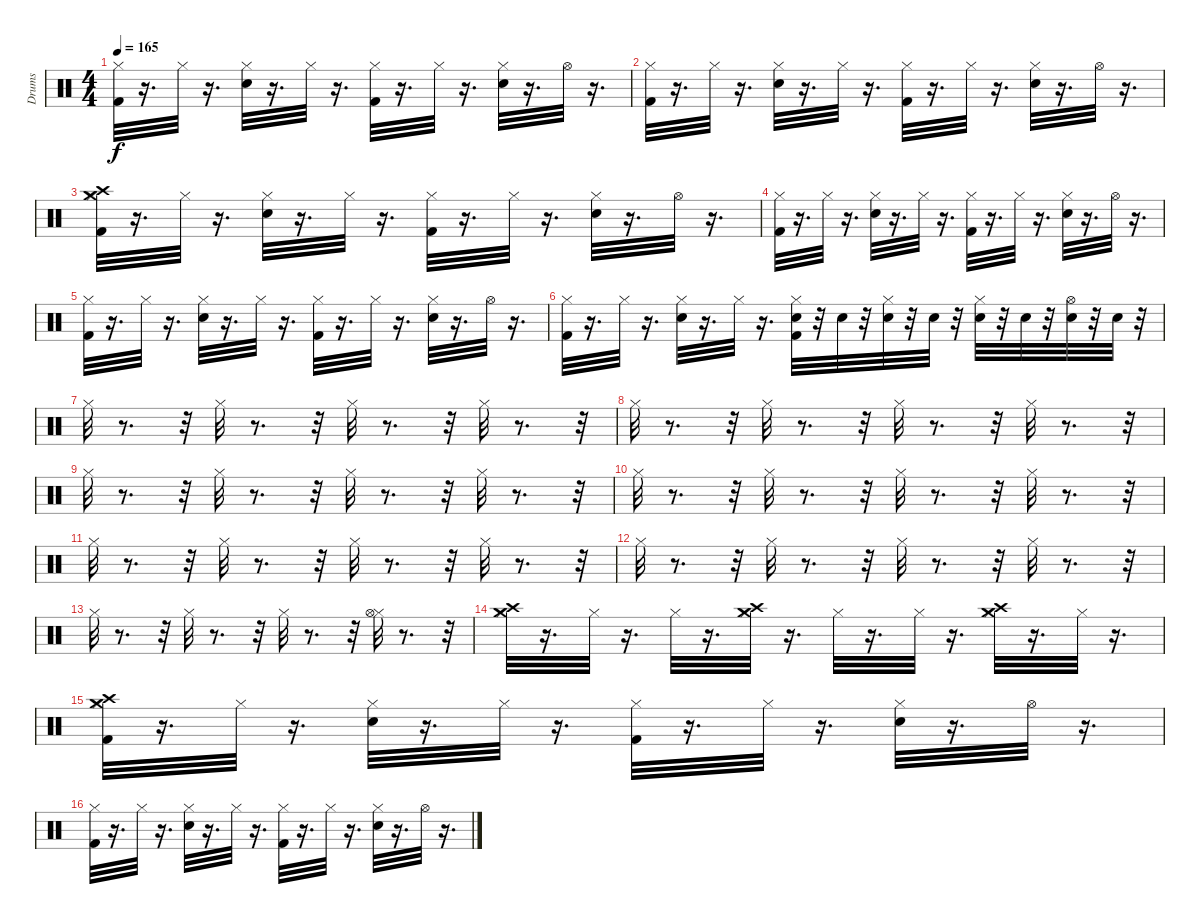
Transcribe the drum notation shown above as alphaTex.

\track ("Drums" "Drums") {instrument percussion}
\staff {score}
\articulation defaults
\ts (4 4)
\tempo 165
\clef neutral
\ks c
("Kick (hit) 2" "Hi-Hat (closed)").32{dy f} r.16{d} "Hi-Hat (closed)".32 r.16{d} ("Hi-Hat (closed)" "Electric Snare (hit)").32 r.16{d} "Hi-Hat (closed)".32 r.16{d} ("Kick (hit) 2" "Hi-Hat (closed)").32 r.16{d} "Hi-Hat (closed)".32 r.16{d} ("Electric Snare (hit)" "Hi-Hat (closed)").32 r.16{d} "Hi-Hat (open)".32 r.16{d} |
("Kick (hit) 2" "Hi-Hat (closed)").32 r.16{d} "Hi-Hat (closed)".32 r.16{d} ("Hi-Hat (closed)" "Electric Snare (hit)").32 r.16{d} "Hi-Hat (closed)".32 r.16{d} ("Kick (hit) 2" "Hi-Hat (closed)").32 r.16{d} "Hi-Hat (closed)".32 r.16{d} ("Electric Snare (hit)" "Hi-Hat (closed)").32 r.16{d} "Hi-Hat (open)".32 r.16{d} |
("Kick (hit) 2" "Hi-Hat (closed)" "Crash high (hit)" "Crash medium (hit)").32 r.16{d} "Hi-Hat (closed)".32 r.16{d} ("Hi-Hat (closed)" "Electric Snare (hit)").32 r.16{d} "Hi-Hat (closed)".32 r.16{d} ("Kick (hit) 2" "Hi-Hat (closed)").32 r.16{d} "Hi-Hat (closed)".32 r.16{d} ("Electric Snare (hit)" "Hi-Hat (closed)").32 r.16{d} "Hi-Hat (open)".32 r.16{d} |
("Kick (hit) 2" "Hi-Hat (closed)").32 r.16{d} "Hi-Hat (closed)".32 r.16{d} ("Hi-Hat (closed)" "Electric Snare (hit)").32 r.16{d} "Hi-Hat (closed)".32 r.16{d} ("Kick (hit) 2" "Hi-Hat (closed)").32 r.16{d} "Hi-Hat (closed)".32 r.16{d} ("Electric Snare (hit)" "Hi-Hat (closed)").32 r.16{d} "Hi-Hat (open)".32 r.16{d} |
("Kick (hit) 2" "Hi-Hat (closed)").32 r.16{d} "Hi-Hat (closed)".32 r.16{d} ("Hi-Hat (closed)" "Electric Snare (hit)").32 r.16{d} "Hi-Hat (closed)".32 r.16{d} ("Kick (hit) 2" "Hi-Hat (closed)").32 r.16{d} "Hi-Hat (closed)".32 r.16{d} ("Electric Snare (hit)" "Hi-Hat (closed)").32 r.16{d} "Hi-Hat (open)".32 r.16{d} |
("Kick (hit) 2" "Hi-Hat (closed)").32 r.16{d} "Hi-Hat (closed)".32 r.16{d} ("Hi-Hat (closed)" "Electric Snare (hit)").32 r.16{d} "Hi-Hat (closed)".32 r.16{d} ("Kick (hit) 2" "Hi-Hat (closed)" "Electric Snare (hit)").32 r.32 "Electric Snare (hit)".32 r.32 ("Electric Snare (hit)" "Hi-Hat (closed)").32 r.32 "Electric Snare (hit)".32 r.32 ("Electric Snare (hit)" "Hi-Hat (closed)").32 r.32 "Electric Snare (hit)".32 r.32 ("Electric Snare (hit)" "Hi-Hat (open)").32 r.32 "Electric Snare (hit)".32 r.32 |
"Hi-Hat (closed)".32 r.8{d} r.32 "Hi-Hat (closed)".32 r.8{d} r.32 "Hi-Hat (closed)".32 r.8{d} r.32 "Hi-Hat (closed)".32 r.8{d} r.32 |
"Hi-Hat (closed)".32 r.8{d} r.32 "Hi-Hat (closed)".32 r.8{d} r.32 "Hi-Hat (closed)".32 r.8{d} r.32 "Hi-Hat (closed)".32 r.8{d} r.32 |
"Hi-Hat (closed)".32 r.8{d} r.32 "Hi-Hat (closed)".32 r.8{d} r.32 "Hi-Hat (closed)".32 r.8{d} r.32 "Hi-Hat (closed)".32 r.8{d} r.32 |
"Hi-Hat (closed)".32 r.8{d} r.32 "Hi-Hat (closed)".32 r.8{d} r.32 "Hi-Hat (closed)".32 r.8{d} r.32 "Hi-Hat (closed)".32 r.8{d} r.32 |
"Hi-Hat (closed)".32 r.8{d} r.32 "Hi-Hat (closed)".32 r.8{d} r.32 "Hi-Hat (closed)".32 r.8{d} r.32 "Hi-Hat (closed)".32 r.8{d} r.32 |
"Hi-Hat (closed)".32 r.8{d} r.32 "Hi-Hat (closed)".32 r.8{d} r.32 "Hi-Hat (closed)".32 r.8{d} r.32 "Hi-Hat (closed)".32 r.8{d} r.32 |
"Hi-Hat (closed)".32 r.8{d} r.32 "Hi-Hat (closed)".32 r.8{d} r.32 "Hi-Hat (closed)".32 r.8{d} r.32 ("Hi-Hat (closed)" "Hi-Hat (open)").32 r.8{d} r.32 |
("Hi-Hat (closed)" "Crash medium (hit)" "Crash high (hit)").32 r.16{d} "Hi-Hat (closed)".32 r.16{d} "Hi-Hat (closed)".32 r.16{d} ("Hi-Hat (closed)" "Crash medium (hit)" "Crash high (hit)").32 r.16{d} "Hi-Hat (closed)".32 r.16{d} "Hi-Hat (closed)".32 r.16{d} ("Hi-Hat (closed)" "Crash high (hit)" "Crash medium (hit)").32 r.16{d} "Hi-Hat (closed)".32 r.16{d} |
("Kick (hit) 2" "Hi-Hat (closed)" "Crash high (hit)" "Crash medium (hit)").32 r.16{d} "Hi-Hat (closed)".32 r.16{d} ("Hi-Hat (closed)" "Electric Snare (hit)").32 r.16{d} "Hi-Hat (closed)".32 r.16{d} ("Kick (hit) 2" "Hi-Hat (closed)").32 r.16{d} "Hi-Hat (closed)".32 r.16{d} ("Electric Snare (hit)" "Hi-Hat (closed)").32 r.16{d} "Hi-Hat (open)".32 r.16{d} |
("Kick (hit) 2" "Hi-Hat (closed)").32 r.16{d} "Hi-Hat (closed)".32 r.16{d} ("Hi-Hat (closed)" "Electric Snare (hit)").32 r.16{d} "Hi-Hat (closed)".32 r.16{d} ("Kick (hit) 2" "Hi-Hat (closed)").32 r.16{d} "Hi-Hat (closed)".32 r.16{d} ("Electric Snare (hit)" "Hi-Hat (closed)").32 r.16{d} "Hi-Hat (open)".32 r.16{d}
